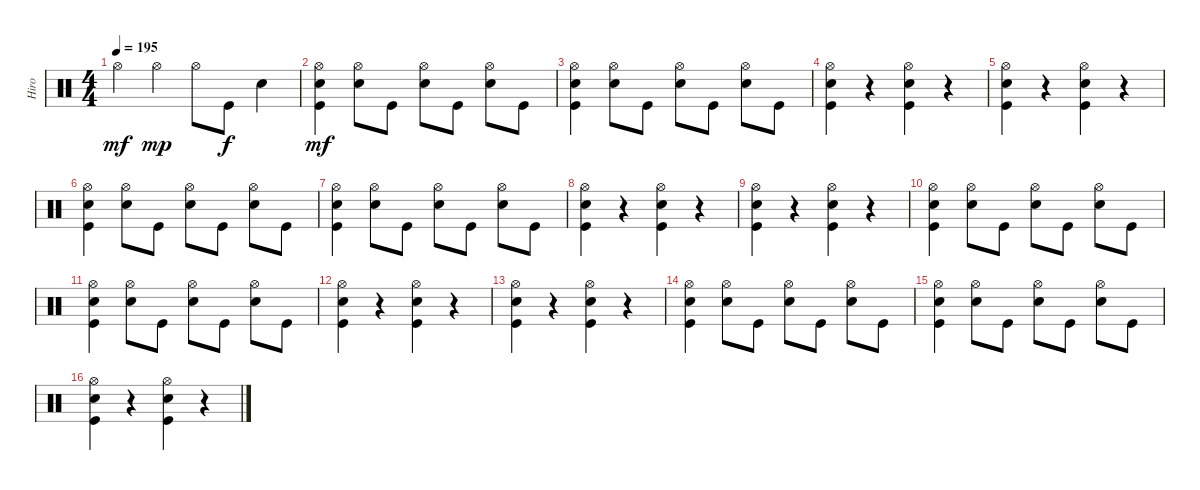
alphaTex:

\track ("Hiro" "Hiro") {instrument percussion}
\staff {score}
\articulation defaults
\ts (4 4)
\tempo 195
\clef neutral
\ks c "Hi-Hat (open)".4{dy mf} "Hi-Hat (open)".4{dy mp} "Hi-Hat (open)".8 "Kick (hit)".8{dy f} "Snare (hit) 2".4
|
("Snare (hit) 2" "Kick (hit)" "Hi-Hat (open)").4{dy mf} ("Snare (hit) 2" "Hi-Hat (open)").8 "Kick (hit)".8 ("Snare (hit) 2" "Hi-Hat (open)").8 "Kick (hit)".8 ("Snare (hit) 2" "Hi-Hat (open)").8 "Kick (hit)".8 |
("Hi-Hat (open)" "Kick (hit)" "Snare (hit) 2").4 ("Hi-Hat (open)" "Snare (hit) 2").8 "Kick (hit)".8 ("Hi-Hat (open)" "Snare (hit) 2").8 "Kick (hit)".8 ("Hi-Hat (open)" "Snare (hit) 2").8 "Kick (hit)".8 |
("Hi-Hat (open)" "Kick (hit)" "Snare (hit) 2").4 r.4 ("Hi-Hat (open)" "Kick (hit)" "Snare (hit) 2").4 r.4 |
("Hi-Hat (open)" "Kick (hit)" "Snare (hit) 2").4 r.4 ("Hi-Hat (open)" "Kick (hit)" "Snare (hit) 2").4 r.4 |
("Hi-Hat (open)" "Kick (hit)" "Snare (hit) 2").4 ("Hi-Hat (open)" "Snare (hit) 2").8 "Kick (hit)".8 ("Hi-Hat (open)" "Snare (hit) 2").8 "Kick (hit)".8 ("Hi-Hat (open)" "Snare (hit) 2").8 "Kick (hit)".8 |
("Snare (hit) 2" "Kick (hit)" "Hi-Hat (open)").4 ("Snare (hit) 2" "Hi-Hat (open)").8 "Kick (hit)".8 ("Snare (hit) 2" "Hi-Hat (open)").8 "Kick (hit)".8 ("Snare (hit) 2" "Hi-Hat (open)").8 "Kick (hit)".8 |
("Snare (hit) 2" "Kick (hit)" "Hi-Hat (open)").4 r.4 ("Snare (hit) 2" "Kick (hit)" "Hi-Hat (open)").4 r.4 |
("Snare (hit) 2" "Kick (hit)" "Hi-Hat (open)").4 r.4 ("Snare (hit) 2" "Kick (hit)" "Hi-Hat (open)").4 r.4 |
("Hi-Hat (open)" "Kick (hit)" "Snare (hit) 2").4 ("Hi-Hat (open)" "Snare (hit) 2").8 "Kick (hit)".8 ("Hi-Hat (open)" "Snare (hit) 2").8 "Kick (hit)".8 ("Hi-Hat (open)" "Snare (hit) 2").8 "Kick (hit)".8 |
("Snare (hit) 2" "Kick (hit)" "Hi-Hat (open)").4 ("Snare (hit) 2" "Hi-Hat (open)").8 "Kick (hit)".8 ("Snare (hit) 2" "Hi-Hat (open)").8 "Kick (hit)".8 ("Snare (hit) 2" "Hi-Hat (open)").8 "Kick (hit)".8 |
("Snare (hit) 2" "Kick (hit)" "Hi-Hat (open)").4 r.4 ("Snare (hit) 2" "Kick (hit)" "Hi-Hat (open)").4 r.4 |
("Snare (hit) 2" "Kick (hit)" "Hi-Hat (open)").4 r.4 ("Snare (hit) 2" "Kick (hit)" "Hi-Hat (open)").4 r.4 |
("Snare (hit) 2" "Kick (hit)" "Hi-Hat (open)").4 ("Snare (hit) 2" "Hi-Hat (open)").8 "Kick (hit)".8 ("Snare (hit) 2" "Hi-Hat (open)").8 "Kick (hit)".8 ("Snare (hit) 2" "Hi-Hat (open)").8 "Kick (hit)".8 |
("Hi-Hat (open)" "Kick (hit)" "Snare (hit) 2").4 ("Hi-Hat (open)" "Snare (hit) 2").8 "Kick (hit)".8 ("Hi-Hat (open)" "Snare (hit) 2").8 "Kick (hit)".8 ("Hi-Hat (open)" "Snare (hit) 2").8 "Kick (hit)".8 |
("Hi-Hat (open)" "Kick (hit)" "Snare (hit) 2").4 r.4 ("Hi-Hat (open)" "Kick (hit)" "Snare (hit) 2").4 r.4
